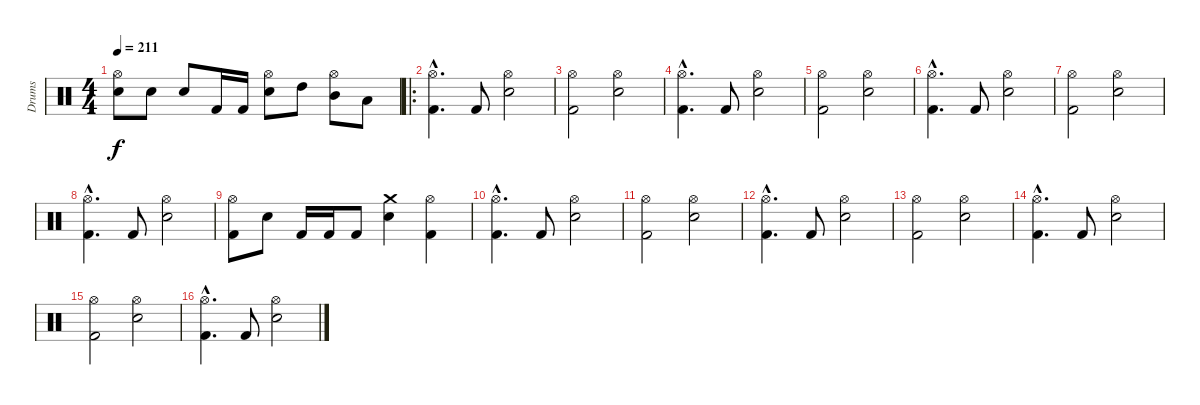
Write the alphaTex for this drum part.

\track ("Drums" "Drums") {instrument percussion}
\staff {score}
\articulation defaults
\ts (4 4)
\tempo 211
\clef neutral
\ks c
("Snare (hit) 2" "Hi-Hat (open)").8{dy f} "Snare (hit) 2".8 "Snare (hit) 2".8 "Kick (hit) 2".16 "Kick (hit) 2".16 ("Snare (hit) 2" "Hi-Hat (open)").8 "High Tom (hit)".8 ("Mid Tom (hit)" "Hi-Hat (open)").8 "Low Tom (hit)".8 |
\ro
("Hi-Hat (open)"{hac} "Kick (hit) 2"{hac}).4{d} "Kick (hit) 2".8 ("Hi-Hat (open)" "Snare (hit) 2").2 |
("Hi-Hat (open)" "Kick (hit) 2").2 ("Hi-Hat (open)" "Snare (hit) 2").2 |
("Hi-Hat (open)"{hac} "Kick (hit) 2"{hac}).4{d} "Kick (hit) 2".8 ("Hi-Hat (open)" "Snare (hit) 2").2 |
("Hi-Hat (open)" "Kick (hit) 2").2 ("Hi-Hat (open)" "Snare (hit) 2").2 |
("Hi-Hat (open)"{hac} "Kick (hit) 2"{hac}).4{d} "Kick (hit) 2".8 ("Hi-Hat (open)" "Snare (hit) 2").2 |
("Hi-Hat (open)" "Kick (hit) 2").2 ("Hi-Hat (open)" "Snare (hit) 2").2 |
("Hi-Hat (open)"{hac} "Kick (hit) 2"{hac}).4{d} "Kick (hit) 2".8 ("Hi-Hat (open)" "Snare (hit) 2").2 |
("Hi-Hat (open)" "Kick (hit) 2").8 "Snare (hit) 2".8 "Kick (hit) 2".16 "Kick (hit) 2".16 "Kick (hit) 2".8 ("Crash medium (hit)" "Snare (hit) 2").4 ("Hi-Hat (open)" "Kick (hit) 2").4 |
("Hi-Hat (open)"{hac} "Kick (hit) 2"{hac}).4{d} "Kick (hit) 2".8 ("Hi-Hat (open)" "Snare (hit) 2").2 |
("Hi-Hat (open)" "Kick (hit) 2").2 ("Hi-Hat (open)" "Snare (hit) 2").2 |
("Hi-Hat (open)"{hac} "Kick (hit) 2"{hac}).4{d} "Kick (hit) 2".8 ("Hi-Hat (open)" "Snare (hit) 2").2 |
("Hi-Hat (open)" "Kick (hit) 2").2 ("Hi-Hat (open)" "Snare (hit) 2").2 |
("Hi-Hat (open)"{hac} "Kick (hit) 2"{hac}).4{d} "Kick (hit) 2".8 ("Hi-Hat (open)" "Snare (hit) 2").2 |
("Hi-Hat (open)" "Kick (hit) 2").2 ("Hi-Hat (open)" "Snare (hit) 2").2 |
("Hi-Hat (open)"{hac} "Kick (hit) 2"{hac}).4{d} "Kick (hit) 2".8 ("Hi-Hat (open)" "Snare (hit) 2").2
